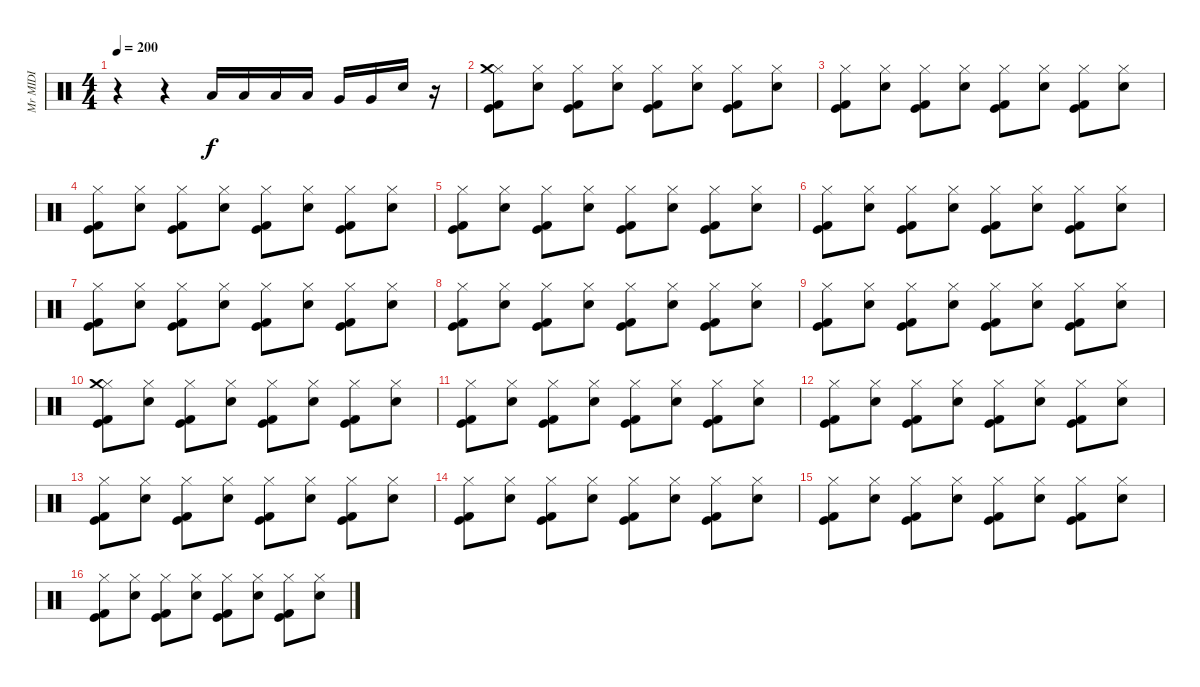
\track ("Mr MIDI" "Mr MIDI") {instrument percussion}
\staff {score}
\articulation defaults
\ts (4 4)
\tempo 200
\clef neutral
\ks c
r.4{dy f} r.4 "Low Tom (hit)".16 "Low Tom (hit)".16 "Low Tom (hit)".16 "Low Tom (hit)".16 "Very Low Tom (hit)".16 "Very Low Tom (hit)".16 "Electric Snare (hit)".16 r.16 |
("Hi-Hat (closed)" "Kick (hit) 2" "Kick (hit)" "Crash medium (hit)").8 ("Hi-Hat (closed)" "Electric Snare (hit)").8 ("Hi-Hat (closed)" "Kick (hit) 2" "Kick (hit)").8 ("Hi-Hat (closed)" "Electric Snare (hit)").8 ("Hi-Hat (closed)" "Kick (hit) 2" "Kick (hit)").8 ("Hi-Hat (closed)" "Electric Snare (hit)").8 ("Hi-Hat (closed)" "Kick (hit) 2" "Kick (hit)").8 ("Hi-Hat (closed)" "Electric Snare (hit)").8 |
("Hi-Hat (closed)" "Kick (hit) 2" "Kick (hit)").8 ("Hi-Hat (closed)" "Electric Snare (hit)").8 ("Hi-Hat (closed)" "Kick (hit) 2" "Kick (hit)").8 ("Hi-Hat (closed)" "Electric Snare (hit)").8 ("Hi-Hat (closed)" "Kick (hit) 2" "Kick (hit)").8 ("Hi-Hat (closed)" "Electric Snare (hit)").8 ("Hi-Hat (closed)" "Kick (hit) 2" "Kick (hit)").8 ("Hi-Hat (closed)" "Electric Snare (hit)").8 |
("Hi-Hat (closed)" "Kick (hit) 2" "Kick (hit)").8 ("Hi-Hat (closed)" "Electric Snare (hit)").8 ("Hi-Hat (closed)" "Kick (hit) 2" "Kick (hit)").8 ("Hi-Hat (closed)" "Electric Snare (hit)").8 ("Hi-Hat (closed)" "Kick (hit) 2" "Kick (hit)").8 ("Hi-Hat (closed)" "Electric Snare (hit)").8 ("Hi-Hat (closed)" "Kick (hit) 2" "Kick (hit)").8 ("Hi-Hat (closed)" "Electric Snare (hit)").8 |
("Hi-Hat (closed)" "Kick (hit) 2" "Kick (hit)").8 ("Hi-Hat (closed)" "Electric Snare (hit)").8 ("Hi-Hat (closed)" "Kick (hit) 2" "Kick (hit)").8 ("Hi-Hat (closed)" "Electric Snare (hit)").8 ("Hi-Hat (closed)" "Kick (hit) 2" "Kick (hit)").8 ("Hi-Hat (closed)" "Electric Snare (hit)").8 ("Hi-Hat (closed)" "Kick (hit) 2" "Kick (hit)").8 ("Hi-Hat (closed)" "Electric Snare (hit)").8 |
("Hi-Hat (closed)" "Kick (hit) 2" "Kick (hit)").8 ("Hi-Hat (closed)" "Electric Snare (hit)").8 ("Hi-Hat (closed)" "Kick (hit) 2" "Kick (hit)").8 ("Hi-Hat (closed)" "Electric Snare (hit)").8 ("Hi-Hat (closed)" "Kick (hit) 2" "Kick (hit)").8 ("Hi-Hat (closed)" "Electric Snare (hit)").8 ("Hi-Hat (closed)" "Kick (hit) 2" "Kick (hit)").8 ("Hi-Hat (closed)" "Electric Snare (hit)").8 |
("Hi-Hat (closed)" "Kick (hit) 2" "Kick (hit)").8 ("Hi-Hat (closed)" "Electric Snare (hit)").8 ("Hi-Hat (closed)" "Kick (hit) 2" "Kick (hit)").8 ("Hi-Hat (closed)" "Electric Snare (hit)").8 ("Hi-Hat (closed)" "Kick (hit) 2" "Kick (hit)").8 ("Hi-Hat (closed)" "Electric Snare (hit)").8 ("Hi-Hat (closed)" "Kick (hit) 2" "Kick (hit)").8 ("Hi-Hat (closed)" "Electric Snare (hit)").8 |
("Hi-Hat (closed)" "Kick (hit) 2" "Kick (hit)").8 ("Hi-Hat (closed)" "Electric Snare (hit)").8 ("Hi-Hat (closed)" "Kick (hit) 2" "Kick (hit)").8 ("Hi-Hat (closed)" "Electric Snare (hit)").8 ("Hi-Hat (closed)" "Kick (hit) 2" "Kick (hit)").8 ("Hi-Hat (closed)" "Electric Snare (hit)").8 ("Hi-Hat (closed)" "Kick (hit) 2" "Kick (hit)").8 ("Hi-Hat (closed)" "Electric Snare (hit)").8 |
("Hi-Hat (closed)" "Kick (hit) 2" "Kick (hit)").8 ("Hi-Hat (closed)" "Electric Snare (hit)").8 ("Hi-Hat (closed)" "Kick (hit) 2" "Kick (hit)").8 ("Hi-Hat (closed)" "Electric Snare (hit)").8 ("Hi-Hat (closed)" "Kick (hit) 2" "Kick (hit)").8 ("Hi-Hat (closed)" "Electric Snare (hit)").8 ("Hi-Hat (closed)" "Kick (hit) 2" "Kick (hit)").8 ("Hi-Hat (closed)" "Electric Snare (hit)").8 |
("Hi-Hat (closed)" "Kick (hit) 2" "Kick (hit)" "Crash medium (hit)").8 ("Hi-Hat (closed)" "Electric Snare (hit)").8 ("Hi-Hat (closed)" "Kick (hit) 2" "Kick (hit)").8 ("Hi-Hat (closed)" "Electric Snare (hit)").8 ("Hi-Hat (closed)" "Kick (hit) 2" "Kick (hit)").8 ("Hi-Hat (closed)" "Electric Snare (hit)").8 ("Hi-Hat (closed)" "Kick (hit) 2" "Kick (hit)").8 ("Hi-Hat (closed)" "Electric Snare (hit)").8 |
("Hi-Hat (closed)" "Kick (hit) 2" "Kick (hit)").8 ("Hi-Hat (closed)" "Electric Snare (hit)").8 ("Hi-Hat (closed)" "Kick (hit) 2" "Kick (hit)").8 ("Hi-Hat (closed)" "Electric Snare (hit)").8 ("Hi-Hat (closed)" "Kick (hit) 2" "Kick (hit)").8 ("Hi-Hat (closed)" "Electric Snare (hit)").8 ("Hi-Hat (closed)" "Kick (hit) 2" "Kick (hit)").8 ("Hi-Hat (closed)" "Electric Snare (hit)").8 |
("Hi-Hat (closed)" "Kick (hit) 2" "Kick (hit)").8 ("Hi-Hat (closed)" "Electric Snare (hit)").8 ("Hi-Hat (closed)" "Kick (hit) 2" "Kick (hit)").8 ("Hi-Hat (closed)" "Electric Snare (hit)").8 ("Hi-Hat (closed)" "Kick (hit) 2" "Kick (hit)").8 ("Hi-Hat (closed)" "Electric Snare (hit)").8 ("Hi-Hat (closed)" "Kick (hit) 2" "Kick (hit)").8 ("Hi-Hat (closed)" "Electric Snare (hit)").8 |
("Hi-Hat (closed)" "Kick (hit) 2" "Kick (hit)").8 ("Hi-Hat (closed)" "Electric Snare (hit)").8 ("Hi-Hat (closed)" "Kick (hit) 2" "Kick (hit)").8 ("Hi-Hat (closed)" "Electric Snare (hit)").8 ("Hi-Hat (closed)" "Kick (hit) 2" "Kick (hit)").8 ("Hi-Hat (closed)" "Electric Snare (hit)").8 ("Hi-Hat (closed)" "Kick (hit) 2" "Kick (hit)").8 ("Hi-Hat (closed)" "Electric Snare (hit)").8 |
("Hi-Hat (closed)" "Kick (hit) 2" "Kick (hit)").8 ("Hi-Hat (closed)" "Electric Snare (hit)").8 ("Hi-Hat (closed)" "Kick (hit) 2" "Kick (hit)").8 ("Hi-Hat (closed)" "Electric Snare (hit)").8 ("Hi-Hat (closed)" "Kick (hit) 2" "Kick (hit)").8 ("Hi-Hat (closed)" "Electric Snare (hit)").8 ("Hi-Hat (closed)" "Kick (hit) 2" "Kick (hit)").8 ("Hi-Hat (closed)" "Electric Snare (hit)").8 |
("Hi-Hat (closed)" "Kick (hit) 2" "Kick (hit)").8 ("Hi-Hat (closed)" "Electric Snare (hit)").8 ("Hi-Hat (closed)" "Kick (hit) 2" "Kick (hit)").8 ("Hi-Hat (closed)" "Electric Snare (hit)").8 ("Hi-Hat (closed)" "Kick (hit) 2" "Kick (hit)").8 ("Hi-Hat (closed)" "Electric Snare (hit)").8 ("Hi-Hat (closed)" "Kick (hit) 2" "Kick (hit)").8 ("Hi-Hat (closed)" "Electric Snare (hit)").8 |
("Hi-Hat (closed)" "Kick (hit) 2" "Kick (hit)").8 ("Hi-Hat (closed)" "Electric Snare (hit)").8 ("Hi-Hat (closed)" "Kick (hit) 2" "Kick (hit)").8 ("Hi-Hat (closed)" "Electric Snare (hit)").8 ("Hi-Hat (closed)" "Kick (hit) 2" "Kick (hit)").8 ("Hi-Hat (closed)" "Electric Snare (hit)").8 ("Hi-Hat (closed)" "Kick (hit) 2" "Kick (hit)").8 ("Hi-Hat (closed)" "Electric Snare (hit)").8
